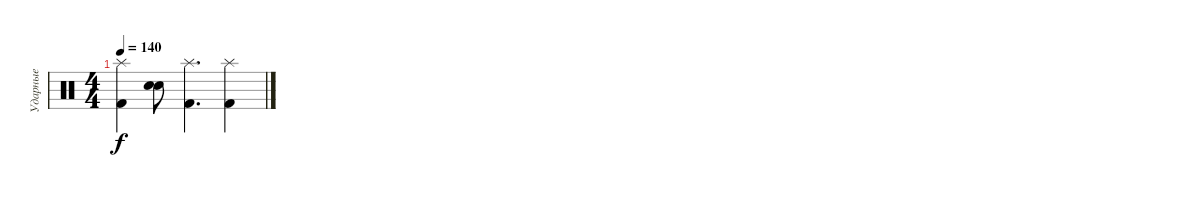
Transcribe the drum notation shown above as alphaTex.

\track ("Ударные" "Ударные") {instrument percussion}
\staff {score}
\articulation defaults
\ts (4 4)
\tempo 140
\clef neutral
\ks c
("Splash (hit)" "Kick (hit) 2").4{dy f} ("Electric Snare (hit)" "Snare (hit) 2").8 ("Splash (hit)" "Kick (hit) 2").4{d} ("Splash (hit)" "Kick (hit) 2").4
